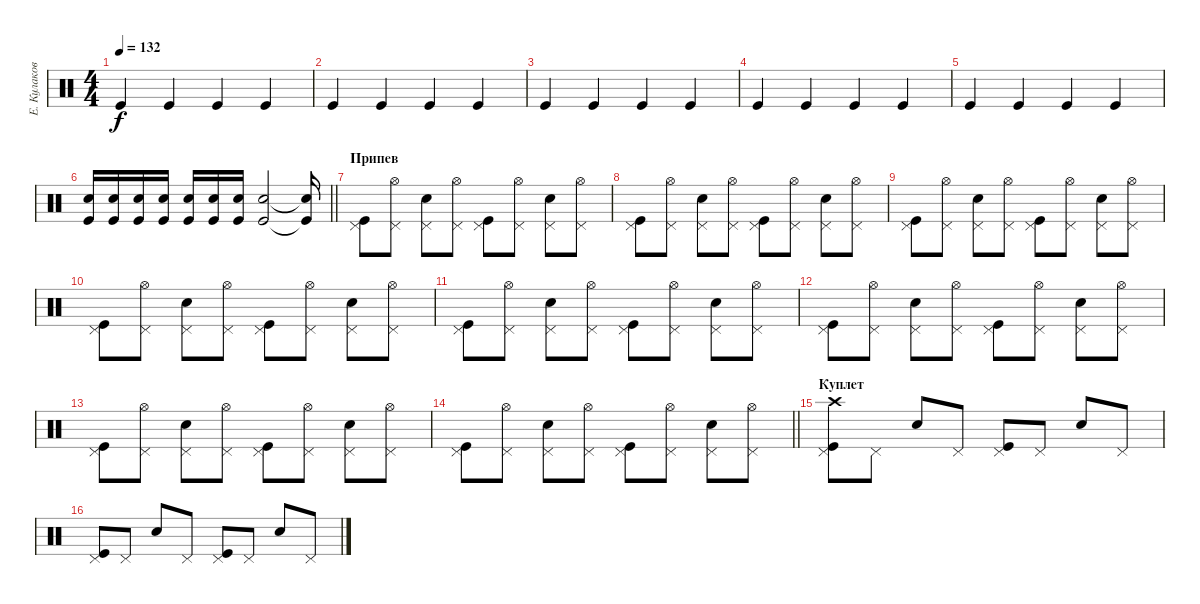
\track ("Е. Кулаков" "Е. Кулаков") {instrument percussion}
\staff {score}
\articulation defaults
\ts (4 4)
\tempo 132
\clef neutral
\ks c "Kick (hit)".4{dy f} "Kick (hit)".4 "Kick (hit)".4 "Kick (hit)".4
|
"Kick (hit)".4 "Kick (hit)".4 "Kick (hit)".4 "Kick (hit)".4 |
"Kick (hit)".4 "Kick (hit)".4 "Kick (hit)".4 "Kick (hit)".4 |
"Kick (hit)".4 "Kick (hit)".4 "Kick (hit)".4 "Kick (hit)".4 |
"Kick (hit)".4 "Kick (hit)".4 "Kick (hit)".4 "Kick (hit)".4 |
\barLineRight lightlight
("Kick (hit)" "Snare (hit) 2").16 ("Kick (hit)" "Snare (hit) 2").16 ("Kick (hit)" "Snare (hit) 2").16 ("Kick (hit)" "Snare (hit) 2").16 ("Kick (hit)" "Snare (hit) 2").16 ("Kick (hit)" "Snare (hit) 2").16 ("Kick (hit)" "Snare (hit) 2").16 ("Kick (hit)" "Snare (hit) 2").2 ("Kick (hit)"{t} "Snare (hit) 2"{t}).16 |
\section ("" "Припев")
("Kick (hit)" "Pedal Hi-Hat (hit)").8 ("Hi-Hat (open)" "Pedal Hi-Hat (hit)").8 ("Pedal Hi-Hat (hit)" "Snare (hit) 2").8 ("Hi-Hat (open)" "Pedal Hi-Hat (hit)").8 ("Kick (hit)" "Pedal Hi-Hat (hit)").8 ("Hi-Hat (open)" "Pedal Hi-Hat (hit)").8 ("Pedal Hi-Hat (hit)" "Snare (hit) 2").8 ("Hi-Hat (open)" "Pedal Hi-Hat (hit)").8 |
("Kick (hit)" "Pedal Hi-Hat (hit)").8 ("Hi-Hat (open)" "Pedal Hi-Hat (hit)").8 ("Pedal Hi-Hat (hit)" "Snare (hit) 2").8 ("Hi-Hat (open)" "Pedal Hi-Hat (hit)").8 ("Kick (hit)" "Pedal Hi-Hat (hit)").8 ("Hi-Hat (open)" "Pedal Hi-Hat (hit)").8 ("Pedal Hi-Hat (hit)" "Snare (hit) 2").8 ("Hi-Hat (open)" "Pedal Hi-Hat (hit)").8 |
("Kick (hit)" "Pedal Hi-Hat (hit)").8 ("Hi-Hat (open)" "Pedal Hi-Hat (hit)").8 ("Pedal Hi-Hat (hit)" "Snare (hit) 2").8 ("Hi-Hat (open)" "Pedal Hi-Hat (hit)").8 ("Kick (hit)" "Pedal Hi-Hat (hit)").8 ("Hi-Hat (open)" "Pedal Hi-Hat (hit)").8 ("Pedal Hi-Hat (hit)" "Snare (hit) 2").8 ("Hi-Hat (open)" "Pedal Hi-Hat (hit)").8 |
("Kick (hit)" "Pedal Hi-Hat (hit)").8 ("Hi-Hat (open)" "Pedal Hi-Hat (hit)").8 ("Pedal Hi-Hat (hit)" "Snare (hit) 2").8 ("Hi-Hat (open)" "Pedal Hi-Hat (hit)").8 ("Kick (hit)" "Pedal Hi-Hat (hit)").8 ("Hi-Hat (open)" "Pedal Hi-Hat (hit)").8 ("Pedal Hi-Hat (hit)" "Snare (hit) 2").8 ("Hi-Hat (open)" "Pedal Hi-Hat (hit)").8 |
("Kick (hit)" "Pedal Hi-Hat (hit)").8 ("Hi-Hat (open)" "Pedal Hi-Hat (hit)").8 ("Pedal Hi-Hat (hit)" "Snare (hit) 2").8 ("Hi-Hat (open)" "Pedal Hi-Hat (hit)").8 ("Kick (hit)" "Pedal Hi-Hat (hit)").8 ("Hi-Hat (open)" "Pedal Hi-Hat (hit)").8 ("Pedal Hi-Hat (hit)" "Snare (hit) 2").8 ("Hi-Hat (open)" "Pedal Hi-Hat (hit)").8 |
("Kick (hit)" "Pedal Hi-Hat (hit)").8 ("Hi-Hat (open)" "Pedal Hi-Hat (hit)").8 ("Pedal Hi-Hat (hit)" "Snare (hit) 2").8 ("Hi-Hat (open)" "Pedal Hi-Hat (hit)").8 ("Kick (hit)" "Pedal Hi-Hat (hit)").8 ("Hi-Hat (open)" "Pedal Hi-Hat (hit)").8 ("Pedal Hi-Hat (hit)" "Snare (hit) 2").8 ("Hi-Hat (open)" "Pedal Hi-Hat (hit)").8 |
("Kick (hit)" "Pedal Hi-Hat (hit)").8 ("Hi-Hat (open)" "Pedal Hi-Hat (hit)").8 ("Pedal Hi-Hat (hit)" "Snare (hit) 2").8 ("Hi-Hat (open)" "Pedal Hi-Hat (hit)").8 ("Kick (hit)" "Pedal Hi-Hat (hit)").8 ("Hi-Hat (open)" "Pedal Hi-Hat (hit)").8 ("Pedal Hi-Hat (hit)" "Snare (hit) 2").8 ("Hi-Hat (open)" "Pedal Hi-Hat (hit)").8 |
\barLineRight lightlight
("Kick (hit)" "Pedal Hi-Hat (hit)").8 ("Hi-Hat (open)" "Pedal Hi-Hat (hit)").8 ("Pedal Hi-Hat (hit)" "Snare (hit) 2").8 ("Hi-Hat (open)" "Pedal Hi-Hat (hit)").8 ("Kick (hit)" "Pedal Hi-Hat (hit)").8 ("Hi-Hat (open)" "Pedal Hi-Hat (hit)").8 ("Pedal Hi-Hat (hit)" "Snare (hit) 2").8 ("Hi-Hat (open)" "Pedal Hi-Hat (hit)").8 |
\section ("" "Куплет")
("Kick (hit)" "Pedal Hi-Hat (hit)" "Crash high (hit)").8 "Pedal Hi-Hat (hit)".8 "Snare (hit) 2".8 "Pedal Hi-Hat (hit)".8 ("Kick (hit)" "Pedal Hi-Hat (hit)").8 "Pedal Hi-Hat (hit)".8 "Snare (hit) 2".8 "Pedal Hi-Hat (hit)".8 |
("Kick (hit)" "Pedal Hi-Hat (hit)").8 "Pedal Hi-Hat (hit)".8 "Snare (hit) 2".8 "Pedal Hi-Hat (hit)".8 ("Kick (hit)" "Pedal Hi-Hat (hit)").8 "Pedal Hi-Hat (hit)".8 "Snare (hit) 2".8 "Pedal Hi-Hat (hit)".8
